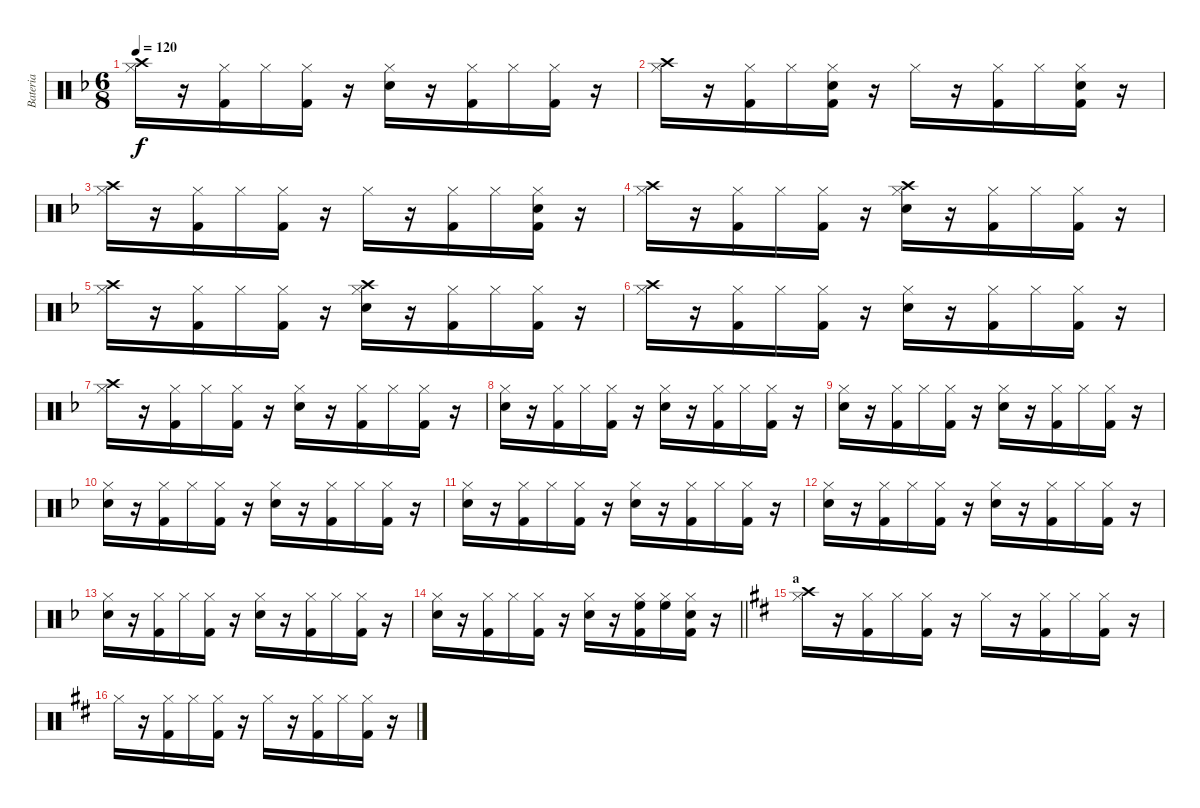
\track ("Bateria" "Bateria") {instrument percussion}
\staff {score}
\articulation defaults
\ts (6 8)
\tempo 120
\clef neutral
\ks f
("Hi-Hat (closed)" "Crash high (hit)").16{dy f} r.16 ("Hi-Hat (closed)" "Kick (hit) 2").16 "Hi-Hat (closed)".16 ("Hi-Hat (closed)" "Kick (hit) 2").16 r.16 ("Hi-Hat (closed)" "Electric Snare (hit)").16 r.16 ("Hi-Hat (closed)" "Kick (hit) 2").16 "Hi-Hat (closed)".16 ("Hi-Hat (closed)" "Kick (hit) 2").16 r.16 |
("Hi-Hat (closed)" "Crash high (hit)").16 r.16 ("Hi-Hat (closed)" "Kick (hit) 2").16 "Hi-Hat (closed)".16 ("Hi-Hat (closed)" "Kick (hit) 2" "Electric Snare (hit)").16 r.16 "Hi-Hat (closed)".16 r.16 ("Hi-Hat (closed)" "Kick (hit) 2").16 "Hi-Hat (closed)".16 ("Hi-Hat (closed)" "Kick (hit) 2" "Electric Snare (hit)").16 r.16 |
("Hi-Hat (closed)" "Crash high (hit)").16 r.16 ("Hi-Hat (closed)" "Kick (hit) 2").16 "Hi-Hat (closed)".16 ("Hi-Hat (closed)" "Kick (hit) 2").16 r.16 "Hi-Hat (closed)".16 r.16 ("Hi-Hat (closed)" "Kick (hit) 2").16 "Hi-Hat (closed)".16 ("Hi-Hat (closed)" "Kick (hit) 2" "Electric Snare (hit)").16 r.16 |
("Hi-Hat (closed)" "Crash high (hit)").16 r.16 ("Hi-Hat (closed)" "Kick (hit) 2").16 "Hi-Hat (closed)".16 ("Hi-Hat (closed)" "Kick (hit) 2").16 r.16 ("Hi-Hat (closed)" "Electric Snare (hit)" "Crash high (hit)").16 r.16 ("Hi-Hat (closed)" "Kick (hit) 2").16 "Hi-Hat (closed)".16 ("Hi-Hat (closed)" "Kick (hit) 2").16 r.16 |
("Hi-Hat (closed)" "Crash high (hit)").16 r.16 ("Hi-Hat (closed)" "Kick (hit) 2").16 "Hi-Hat (closed)".16 ("Hi-Hat (closed)" "Kick (hit) 2").16 r.16 ("Hi-Hat (closed)" "Electric Snare (hit)" "Crash high (hit)").16 r.16 ("Hi-Hat (closed)" "Kick (hit) 2").16 "Hi-Hat (closed)".16 ("Hi-Hat (closed)" "Kick (hit) 2").16 r.16 |
("Hi-Hat (closed)" "Crash high (hit)").16 r.16 ("Hi-Hat (closed)" "Kick (hit) 2").16 "Hi-Hat (closed)".16 ("Hi-Hat (closed)" "Kick (hit) 2").16 r.16 ("Hi-Hat (closed)" "Electric Snare (hit)").16 r.16 ("Hi-Hat (closed)" "Kick (hit) 2").16 "Hi-Hat (closed)".16 ("Hi-Hat (closed)" "Kick (hit) 2").16 r.16 |
("Hi-Hat (closed)" "Crash high (hit)").16 r.16 ("Hi-Hat (closed)" "Kick (hit) 2").16 "Hi-Hat (closed)".16 ("Hi-Hat (closed)" "Kick (hit) 2").16 r.16 ("Hi-Hat (closed)" "Electric Snare (hit)").16 r.16 ("Hi-Hat (closed)" "Kick (hit) 2").16 "Hi-Hat (closed)".16 ("Hi-Hat (closed)" "Kick (hit) 2").16 r.16 |
("Hi-Hat (closed)" "Electric Snare (hit)").16 r.16 ("Hi-Hat (closed)" "Kick (hit) 2").16 "Hi-Hat (closed)".16 ("Hi-Hat (closed)" "Kick (hit) 2").16 r.16 ("Hi-Hat (closed)" "Electric Snare (hit)").16 r.16 ("Hi-Hat (closed)" "Kick (hit) 2").16 "Hi-Hat (closed)".16 ("Hi-Hat (closed)" "Kick (hit) 2").16 r.16 |
("Hi-Hat (closed)" "Electric Snare (hit)").16 r.16 ("Hi-Hat (closed)" "Kick (hit) 2").16 "Hi-Hat (closed)".16 ("Hi-Hat (closed)" "Kick (hit) 2").16 r.16 ("Hi-Hat (closed)" "Electric Snare (hit)").16 r.16 ("Hi-Hat (closed)" "Kick (hit) 2").16 "Hi-Hat (closed)".16 ("Hi-Hat (closed)" "Kick (hit) 2").16 r.16 |
("Hi-Hat (closed)" "Electric Snare (hit)").16 r.16 ("Hi-Hat (closed)" "Kick (hit) 2").16 "Hi-Hat (closed)".16 ("Hi-Hat (closed)" "Kick (hit) 2").16 r.16 ("Hi-Hat (closed)" "Electric Snare (hit)").16 r.16 ("Hi-Hat (closed)" "Kick (hit) 2").16 "Hi-Hat (closed)".16 ("Hi-Hat (closed)" "Kick (hit) 2").16 r.16 |
("Hi-Hat (closed)" "Electric Snare (hit)").16 r.16 ("Hi-Hat (closed)" "Kick (hit) 2").16 "Hi-Hat (closed)".16 ("Hi-Hat (closed)" "Kick (hit) 2").16 r.16 ("Hi-Hat (closed)" "Electric Snare (hit)").16 r.16 ("Hi-Hat (closed)" "Kick (hit) 2").16 "Hi-Hat (closed)".16 ("Hi-Hat (closed)" "Kick (hit) 2").16 r.16 |
("Hi-Hat (closed)" "Electric Snare (hit)").16 r.16 ("Hi-Hat (closed)" "Kick (hit) 2").16 "Hi-Hat (closed)".16 ("Hi-Hat (closed)" "Kick (hit) 2").16 r.16 ("Hi-Hat (closed)" "Electric Snare (hit)").16 r.16 ("Hi-Hat (closed)" "Kick (hit) 2").16 "Hi-Hat (closed)".16 ("Hi-Hat (closed)" "Kick (hit) 2").16 r.16 |
("Hi-Hat (closed)" "Electric Snare (hit)").16 r.16 ("Hi-Hat (closed)" "Kick (hit) 2").16 "Hi-Hat (closed)".16 ("Hi-Hat (closed)" "Kick (hit) 2").16 r.16 ("Hi-Hat (closed)" "Electric Snare (hit)").16 r.16 ("Hi-Hat (closed)" "Kick (hit) 2").16 "Hi-Hat (closed)".16 ("Hi-Hat (closed)" "Kick (hit) 2").16 r.16 |
\barLineRight lightlight
("Hi-Hat (closed)" "Electric Snare (hit)").16 r.16 ("Hi-Hat (closed)" "Kick (hit) 2").16 "Hi-Hat (closed)".16 ("Hi-Hat (closed)" "Kick (hit) 2").16 r.16 ("Hi-Hat (closed)" "Electric Snare (hit)").16 r.16 ("Hi-Hat (closed)" "Kick (hit) 2" "High Floor Tom (hit)").16 ("Hi-Hat (closed)" "High Floor Tom (hit)").16 ("Hi-Hat (closed)" "Kick (hit) 2" "Electric Snare (hit)").16 r.16 |
\section ("" "a")
\ks d
("Hi-Hat (closed)" "Crash high (hit)").16 r.16 ("Hi-Hat (closed)" "Kick (hit) 2").16 "Hi-Hat (closed)".16 ("Hi-Hat (closed)" "Kick (hit) 2").16 r.16 "Hi-Hat (closed)".16 r.16 ("Hi-Hat (closed)" "Kick (hit) 2").16 "Hi-Hat (closed)".16 ("Hi-Hat (closed)" "Kick (hit) 2").16 r.16 |
"Hi-Hat (closed)".16 r.16 ("Hi-Hat (closed)" "Kick (hit) 2").16 "Hi-Hat (closed)".16 ("Hi-Hat (closed)" "Kick (hit) 2").16 r.16 "Hi-Hat (closed)".16 r.16 ("Hi-Hat (closed)" "Kick (hit) 2").16 "Hi-Hat (closed)".16 ("Hi-Hat (closed)" "Kick (hit) 2").16 r.16
